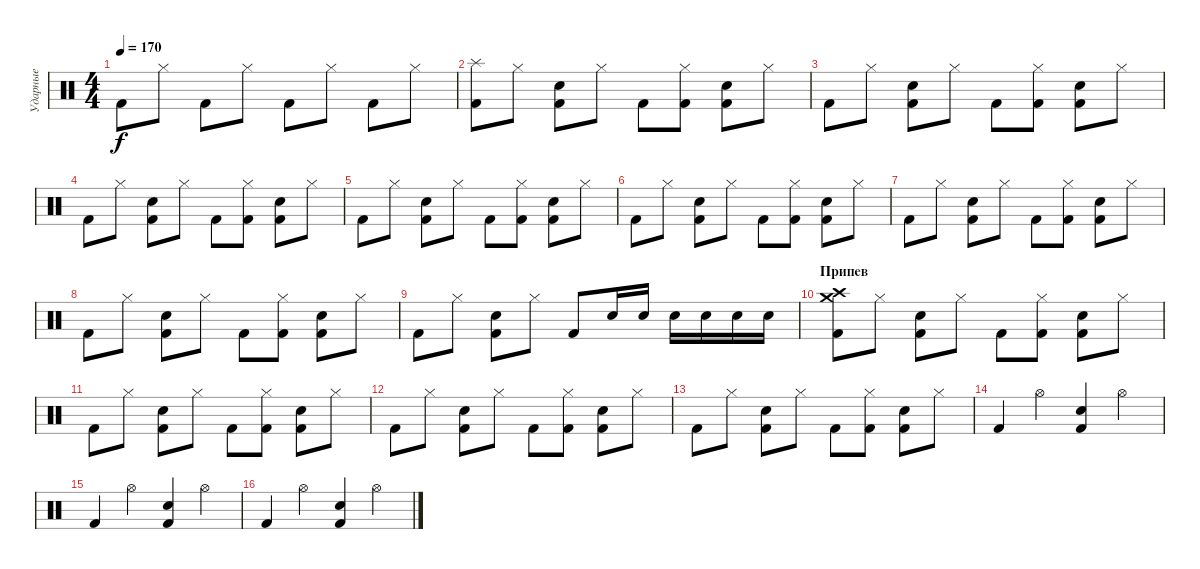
\track ("Ударные" "Ударные") {instrument percussion}
\staff {score}
\articulation defaults
\ts (4 4)
\tempo 170
\clef neutral
\ks c "Kick (hit) 2".8{dy f} "Hi-Hat (closed)".8 "Kick (hit) 2".8 "Hi-Hat (closed)".8 "Kick (hit) 2".8 "Hi-Hat (closed)".8 "Kick (hit) 2".8 "Hi-Hat (closed)".8
|
("Kick (hit) 2" "Splash (hit)").8 "Hi-Hat (closed)".8 ("Kick (hit) 2" "Snare (hit) 2").8 "Hi-Hat (closed)".8 "Kick (hit) 2".8 ("Hi-Hat (closed)" "Kick (hit) 2").8 ("Kick (hit) 2" "Snare (hit) 2").8 "Hi-Hat (closed)".8 |
"Kick (hit) 2".8 "Hi-Hat (closed)".8 ("Kick (hit) 2" "Snare (hit) 2").8 "Hi-Hat (closed)".8 "Kick (hit) 2".8 ("Hi-Hat (closed)" "Kick (hit) 2").8 ("Kick (hit) 2" "Snare (hit) 2").8 "Hi-Hat (closed)".8 |
"Kick (hit) 2".8 "Hi-Hat (closed)".8 ("Kick (hit) 2" "Snare (hit) 2").8 "Hi-Hat (closed)".8 "Kick (hit) 2".8 ("Hi-Hat (closed)" "Kick (hit) 2").8 ("Kick (hit) 2" "Snare (hit) 2").8 "Hi-Hat (closed)".8 |
"Kick (hit) 2".8 "Hi-Hat (closed)".8 ("Kick (hit) 2" "Snare (hit) 2").8 "Hi-Hat (closed)".8 "Kick (hit) 2".8 ("Hi-Hat (closed)" "Kick (hit) 2").8 ("Kick (hit) 2" "Snare (hit) 2").8 "Hi-Hat (closed)".8 |
"Kick (hit) 2".8 "Hi-Hat (closed)".8 ("Kick (hit) 2" "Snare (hit) 2").8 "Hi-Hat (closed)".8 "Kick (hit) 2".8 ("Hi-Hat (closed)" "Kick (hit) 2").8 ("Kick (hit) 2" "Snare (hit) 2").8 "Hi-Hat (closed)".8 |
"Kick (hit) 2".8 "Hi-Hat (closed)".8 ("Kick (hit) 2" "Snare (hit) 2").8 "Hi-Hat (closed)".8 "Kick (hit) 2".8 ("Hi-Hat (closed)" "Kick (hit) 2").8 ("Kick (hit) 2" "Snare (hit) 2").8 "Hi-Hat (closed)".8 |
"Kick (hit) 2".8 "Hi-Hat (closed)".8 ("Kick (hit) 2" "Snare (hit) 2").8 "Hi-Hat (closed)".8 "Kick (hit) 2".8 ("Hi-Hat (closed)" "Kick (hit) 2").8 ("Kick (hit) 2" "Snare (hit) 2").8 "Hi-Hat (closed)".8 |
"Kick (hit) 2".8 "Hi-Hat (closed)".8 ("Kick (hit) 2" "Snare (hit) 2").8 "Hi-Hat (closed)".8 "Kick (hit) 2".8 "Electric Snare (hit)".16 "Electric Snare (hit)".16 "Electric Snare (hit)".16 "Electric Snare (hit)".16 "Electric Snare (hit)".16 "Electric Snare (hit)".16 |
\section ("" "Припев")
("Kick (hit) 2" "Crash high (hit)" "Crash medium (hit)").8 "Hi-Hat (closed)".8 ("Kick (hit) 2" "Snare (hit) 2").8 "Hi-Hat (closed)".8 "Kick (hit) 2".8 ("Hi-Hat (closed)" "Kick (hit) 2").8 ("Kick (hit) 2" "Snare (hit) 2").8 "Hi-Hat (closed)".8 |
"Kick (hit) 2".8 "Hi-Hat (closed)".8 ("Kick (hit) 2" "Snare (hit) 2").8 "Hi-Hat (closed)".8 "Kick (hit) 2".8 ("Hi-Hat (closed)" "Kick (hit) 2").8 ("Kick (hit) 2" "Snare (hit) 2").8 "Hi-Hat (closed)".8 |
"Kick (hit) 2".8 "Hi-Hat (closed)".8 ("Kick (hit) 2" "Snare (hit) 2").8 "Hi-Hat (closed)".8 "Kick (hit) 2".8 ("Hi-Hat (closed)" "Kick (hit) 2").8 ("Kick (hit) 2" "Snare (hit) 2").8 "Hi-Hat (closed)".8 |
"Kick (hit) 2".8 "Hi-Hat (closed)".8 ("Kick (hit) 2" "Snare (hit) 2").8 "Hi-Hat (closed)".8 "Kick (hit) 2".8 ("Hi-Hat (closed)" "Kick (hit) 2").8 ("Kick (hit) 2" "Snare (hit) 2").8 "Hi-Hat (closed)".8 |
"Kick (hit) 2".4 "Hi-Hat (open)".4 ("Snare (hit) 2" "Kick (hit) 2").4 "Hi-Hat (open)".4 |
"Kick (hit) 2".4 "Hi-Hat (open)".4 ("Snare (hit) 2" "Kick (hit) 2").4 "Hi-Hat (open)".4 |
"Kick (hit) 2".4 "Hi-Hat (open)".4 ("Snare (hit) 2" "Kick (hit) 2").4 "Hi-Hat (open)".4
